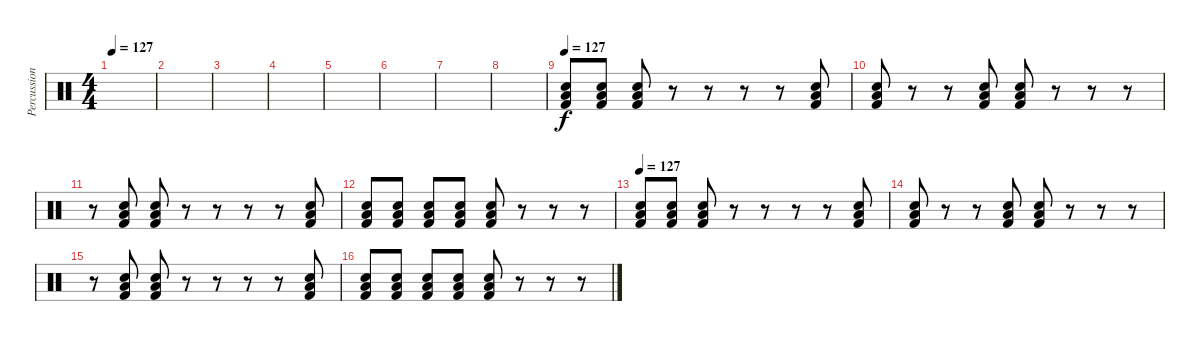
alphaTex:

\track ("Percussion" "Percussion") {instrument percussion}
\staff {score}
\articulation defaults
\ts (4 4)
\tempo 127
\clef neutral
\ks c
|
|
|
|
|
|
|
|
\tempo 127
("Snare (hit) 2" "Low Floor Tom (hit)" "Kick (hit) 2").8 ("Snare (hit) 2" "Low Floor Tom (hit)" "Kick (hit) 2").8 ("Snare (hit) 2" "Low Floor Tom (hit)" "Kick (hit) 2").8 r.8 r.8 r.8 r.8 ("Snare (hit) 2" "Low Floor Tom (hit)" "Kick (hit) 2").8 |
("Snare (hit) 2" "Low Floor Tom (hit)" "Kick (hit) 2").8 r.8 r.8 ("Snare (hit) 2" "Low Floor Tom (hit)" "Kick (hit) 2").8 ("Snare (hit) 2" "Low Floor Tom (hit)" "Kick (hit) 2").8 r.8 r.8 r.8 |
r.8 ("Snare (hit) 2" "Low Floor Tom (hit)" "Kick (hit) 2").8 ("Snare (hit) 2" "Low Floor Tom (hit)" "Kick (hit) 2").8 r.8 r.8 r.8 r.8 ("Snare (hit) 2" "Kick (hit) 2" "Low Floor Tom (hit)").8 |
("Snare (hit) 2" "Kick (hit) 2" "Low Floor Tom (hit)").8 ("Snare (hit) 2" "Kick (hit) 2" "Low Floor Tom (hit)").8 ("Snare (hit) 2" "Kick (hit) 2" "Low Floor Tom (hit)").8 ("Snare (hit) 2" "Kick (hit) 2" "Low Floor Tom (hit)").8 ("Snare (hit) 2" "Kick (hit) 2" "Low Floor Tom (hit)").8 r.8 r.8 r.8 |
\tempo 127
("Snare (hit) 2" "Low Floor Tom (hit)" "Kick (hit) 2").8 ("Snare (hit) 2" "Low Floor Tom (hit)" "Kick (hit) 2").8 ("Snare (hit) 2" "Low Floor Tom (hit)" "Kick (hit) 2").8 r.8 r.8 r.8 r.8 ("Snare (hit) 2" "Low Floor Tom (hit)" "Kick (hit) 2").8 |
("Snare (hit) 2" "Low Floor Tom (hit)" "Kick (hit) 2").8 r.8 r.8 ("Snare (hit) 2" "Low Floor Tom (hit)" "Kick (hit) 2").8 ("Snare (hit) 2" "Low Floor Tom (hit)" "Kick (hit) 2").8 r.8 r.8 r.8 |
r.8 ("Snare (hit) 2" "Low Floor Tom (hit)" "Kick (hit) 2").8 ("Snare (hit) 2" "Low Floor Tom (hit)" "Kick (hit) 2").8 r.8 r.8 r.8 r.8 ("Snare (hit) 2" "Kick (hit) 2" "Low Floor Tom (hit)").8 |
("Snare (hit) 2" "Kick (hit) 2" "Low Floor Tom (hit)").8 ("Snare (hit) 2" "Kick (hit) 2" "Low Floor Tom (hit)").8 ("Snare (hit) 2" "Kick (hit) 2" "Low Floor Tom (hit)").8 ("Snare (hit) 2" "Kick (hit) 2" "Low Floor Tom (hit)").8 ("Snare (hit) 2" "Kick (hit) 2" "Low Floor Tom (hit)").8 r.8 r.8 r.8
